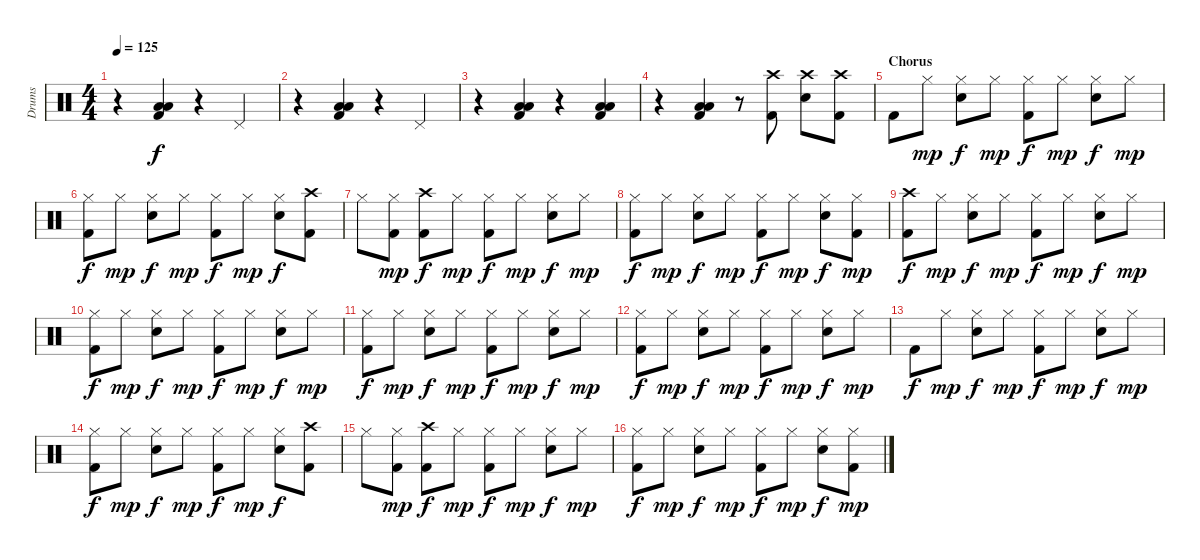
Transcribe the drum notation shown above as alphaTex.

\track ("Drums" "Drums") {instrument percussion}
\staff {score}
\articulation defaults
\ts (4 4)
\tempo 125
\clef neutral
\ks c
r.4{dy f} ("Low Floor Tom (hit)" "Low Floor Tom (hit)" "Kick (hit) 2").4 r.4 "Pedal Hi-Hat (hit)".4 |
r.4 ("Low Floor Tom (hit)" "Low Floor Tom (hit)" "Kick (hit) 2").4 r.4 "Pedal Hi-Hat (hit)".4 |
r.4 ("Low Floor Tom (hit)" "Low Floor Tom (hit)" "Kick (hit) 2").4 r.4 ("Low Floor Tom (hit)" "Low Floor Tom (hit)" "Kick (hit) 2").4 |
r.4 ("Low Floor Tom (hit)" "Low Floor Tom (hit)" "Kick (hit) 2").4 r.8 ("Crash high (hit)" "Kick (hit) 2").8 ("Crash high (hit)" "Snare (hit) 2").8 ("Crash high (hit)" "Kick (hit) 2").8 |
\section ("" "Chorus")
"Kick (hit) 2".8 "Hi-Hat (closed)".8{dy mp} ("Hi-Hat (closed)" "Snare (hit) 2").8{dy f} "Hi-Hat (closed)".8{dy mp} ("Hi-Hat (closed)" "Kick (hit) 2").8{dy f} "Hi-Hat (closed)".8{dy mp} ("Hi-Hat (closed)" "Snare (hit) 2").8{dy f} "Hi-Hat (closed)".8{dy mp} |
("Hi-Hat (closed)" "Kick (hit) 2").8{dy f} "Hi-Hat (closed)".8{dy mp} ("Hi-Hat (closed)" "Snare (hit) 2").8{dy f} "Hi-Hat (closed)".8{dy mp} ("Hi-Hat (closed)" "Kick (hit) 2").8{dy f} "Hi-Hat (closed)".8{dy mp} ("Hi-Hat (closed)" "Snare (hit) 2").8{dy f} ("Crash high (hit)" "Kick (hit) 2").8 |
"Hi-Hat (closed)".8 ("Hi-Hat (closed)" "Kick (hit) 2").8{dy mp} ("Crash high (hit)" "Kick (hit) 2").8{dy f} "Hi-Hat (closed)".8{dy mp} ("Hi-Hat (closed)" "Kick (hit) 2").8{dy f} "Hi-Hat (closed)".8{dy mp} ("Hi-Hat (closed)" "Snare (hit) 2").8{dy f} "Hi-Hat (closed)".8{dy mp} |
("Hi-Hat (closed)" "Kick (hit) 2").8{dy f} "Hi-Hat (closed)".8{dy mp} ("Hi-Hat (closed)" "Snare (hit) 2").8{dy f} "Hi-Hat (closed)".8{dy mp} ("Hi-Hat (closed)" "Kick (hit) 2").8{dy f} "Hi-Hat (closed)".8{dy mp} ("Hi-Hat (closed)" "Snare (hit) 2").8{dy f} ("Hi-Hat (closed)" "Kick (hit) 2").8{dy mp} |
("Crash high (hit)" "Kick (hit) 2").8{dy f} "Hi-Hat (closed)".8{dy mp} ("Hi-Hat (closed)" "Snare (hit) 2").8{dy f} "Hi-Hat (closed)".8{dy mp} ("Hi-Hat (closed)" "Kick (hit) 2").8{dy f} "Hi-Hat (closed)".8{dy mp} ("Hi-Hat (closed)" "Snare (hit) 2").8{dy f} "Hi-Hat (closed)".8{dy mp} |
("Hi-Hat (closed)" "Kick (hit) 2").8{dy f} "Hi-Hat (closed)".8{dy mp} ("Hi-Hat (closed)" "Snare (hit) 2").8{dy f} "Hi-Hat (closed)".8{dy mp} ("Hi-Hat (closed)" "Kick (hit) 2").8{dy f} "Hi-Hat (closed)".8{dy mp} ("Hi-Hat (closed)" "Snare (hit) 2").8{dy f} "Hi-Hat (closed)".8{dy mp} |
("Hi-Hat (closed)" "Kick (hit) 2").8{dy f} "Hi-Hat (closed)".8{dy mp} ("Hi-Hat (closed)" "Snare (hit) 2").8{dy f} "Hi-Hat (closed)".8{dy mp} ("Hi-Hat (closed)" "Kick (hit) 2").8{dy f} "Hi-Hat (closed)".8{dy mp} ("Hi-Hat (closed)" "Snare (hit) 2").8{dy f} "Hi-Hat (closed)".8{dy mp} |
("Hi-Hat (closed)" "Kick (hit) 2").8{dy f} "Hi-Hat (closed)".8{dy mp} ("Hi-Hat (closed)" "Snare (hit) 2").8{dy f} "Hi-Hat (closed)".8{dy mp} ("Hi-Hat (closed)" "Kick (hit) 2").8{dy f} "Hi-Hat (closed)".8{dy mp} ("Hi-Hat (closed)" "Snare (hit) 2").8{dy f} "Hi-Hat (closed)".8{dy mp} |
"Kick (hit) 2".8{dy f} "Hi-Hat (closed)".8{dy mp} ("Hi-Hat (closed)" "Snare (hit) 2").8{dy f} "Hi-Hat (closed)".8{dy mp} ("Hi-Hat (closed)" "Kick (hit) 2").8{dy f} "Hi-Hat (closed)".8{dy mp} ("Hi-Hat (closed)" "Snare (hit) 2").8{dy f} "Hi-Hat (closed)".8{dy mp} |
("Hi-Hat (closed)" "Kick (hit) 2").8{dy f} "Hi-Hat (closed)".8{dy mp} ("Hi-Hat (closed)" "Snare (hit) 2").8{dy f} "Hi-Hat (closed)".8{dy mp} ("Hi-Hat (closed)" "Kick (hit) 2").8{dy f} "Hi-Hat (closed)".8{dy mp} ("Hi-Hat (closed)" "Snare (hit) 2").8{dy f} ("Crash high (hit)" "Kick (hit) 2").8 |
"Hi-Hat (closed)".8 ("Hi-Hat (closed)" "Kick (hit) 2").8{dy mp} ("Crash high (hit)" "Kick (hit) 2").8{dy f} "Hi-Hat (closed)".8{dy mp} ("Hi-Hat (closed)" "Kick (hit) 2").8{dy f} "Hi-Hat (closed)".8{dy mp} ("Hi-Hat (closed)" "Snare (hit) 2").8{dy f} "Hi-Hat (closed)".8{dy mp} |
("Hi-Hat (closed)" "Kick (hit) 2").8{dy f} "Hi-Hat (closed)".8{dy mp} ("Hi-Hat (closed)" "Snare (hit) 2").8{dy f} "Hi-Hat (closed)".8{dy mp} ("Hi-Hat (closed)" "Kick (hit) 2").8{dy f} "Hi-Hat (closed)".8{dy mp} ("Hi-Hat (closed)" "Snare (hit) 2").8{dy f} ("Hi-Hat (closed)" "Kick (hit) 2").8{dy mp}
